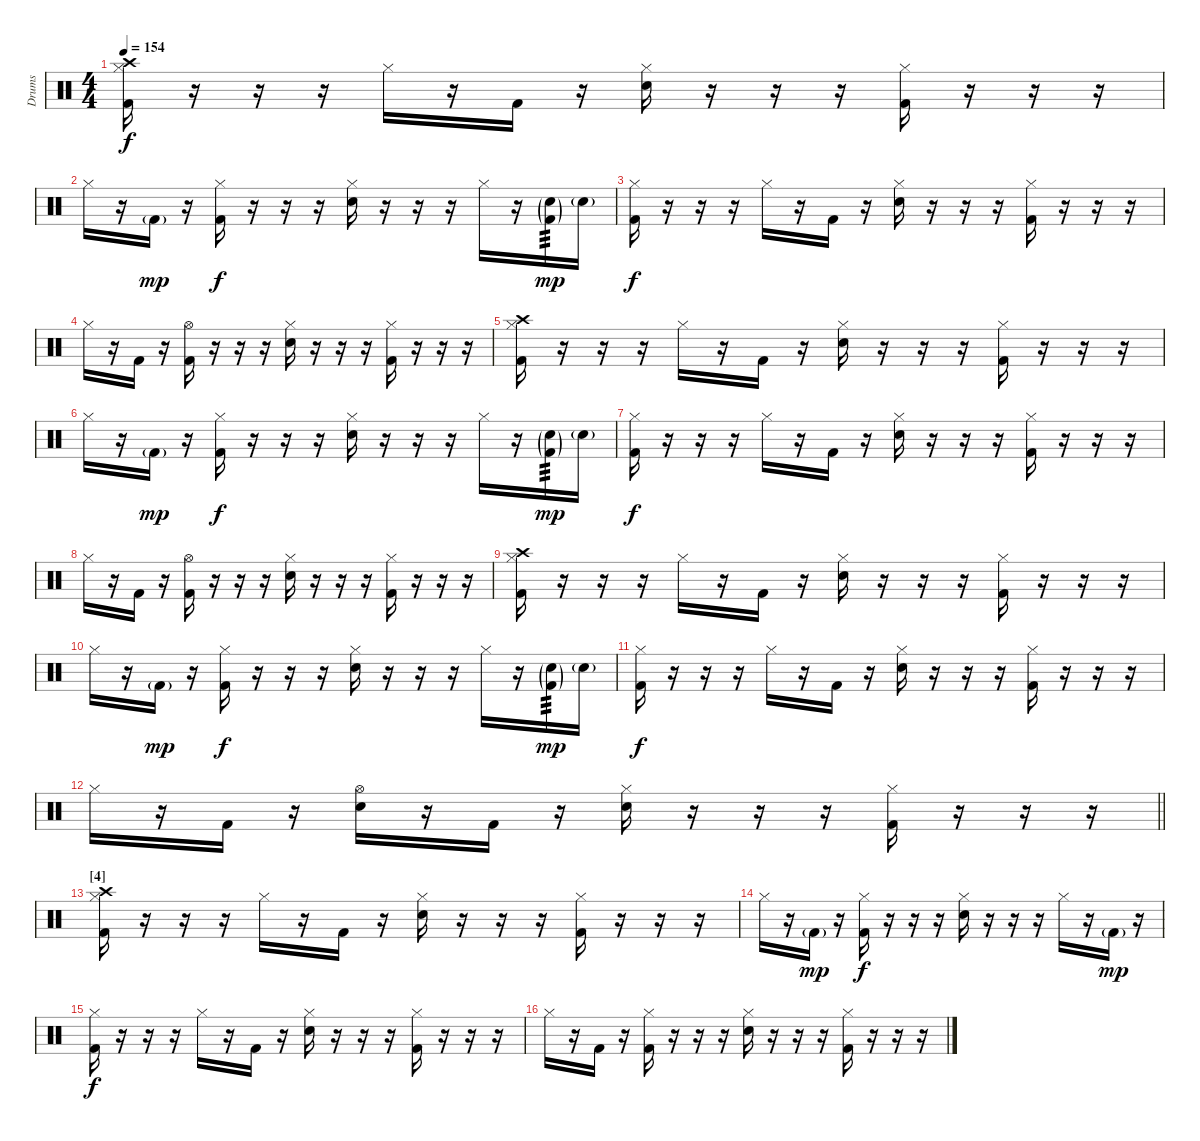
\track ("Drums" "Drums") {instrument percussion}
\staff {score}
\articulation defaults
\ts (4 4)
\tempo 154
\clef neutral
\ks c
("Crash high (hit)" "Hi-Hat (closed)" "Kick (hit) 2").16{dy f} r.16 r.16 r.16 "Hi-Hat (closed)".16 r.16 "Kick (hit) 2".16 r.16 ("Hi-Hat (closed)" "Electric Snare (hit)").16 r.16 r.16 r.16 ("Hi-Hat (closed)" "Kick (hit) 2").16 r.16 r.16 r.16 |
"Hi-Hat (closed)".16 r.16 "Kick (hit) 2"{g}.16{dy mp} r.16 ("Hi-Hat (closed)" "Kick (hit) 2").16{dy f} r.16 r.16 r.16 ("Hi-Hat (closed)" "Electric Snare (hit)").16 r.16 r.16 r.16 "Hi-Hat (closed)".16 r.16 ("Electric Snare (hit)"{g} "Kick (hit) 2"{g}).16{tp 3 dy mp} "Electric Snare (hit)"{g}.16 |
("Hi-Hat (closed)" "Kick (hit) 2").16{dy f} r.16 r.16 r.16 "Hi-Hat (closed)".16 r.16 "Kick (hit) 2".16 r.16 ("Hi-Hat (closed)" "Electric Snare (hit)").16 r.16 r.16 r.16 ("Hi-Hat (closed)" "Kick (hit) 2").16 r.16 r.16 r.16 |
"Hi-Hat (closed)".16 r.16 "Kick (hit) 2".16 r.16 ("Hi-Hat (open)" "Kick (hit) 2").16 r.16 r.16 r.16 ("Hi-Hat (closed)" "Electric Snare (hit)").16 r.16 r.16 r.16 ("Hi-Hat (closed)" "Kick (hit) 2").16 r.16 r.16 r.16 |
("Crash high (hit)" "Hi-Hat (closed)" "Kick (hit) 2").16 r.16 r.16 r.16 "Hi-Hat (closed)".16 r.16 "Kick (hit) 2".16 r.16 ("Hi-Hat (closed)" "Electric Snare (hit)").16 r.16 r.16 r.16 ("Hi-Hat (closed)" "Kick (hit) 2").16 r.16 r.16 r.16 |
"Hi-Hat (closed)".16 r.16 "Kick (hit) 2"{g}.16{dy mp} r.16 ("Hi-Hat (closed)" "Kick (hit) 2").16{dy f} r.16 r.16 r.16 ("Hi-Hat (closed)" "Electric Snare (hit)").16 r.16 r.16 r.16 "Hi-Hat (closed)".16 r.16 ("Electric Snare (hit)"{g} "Kick (hit) 2"{g}).16{tp 3 dy mp} "Electric Snare (hit)"{g}.16 |
("Hi-Hat (closed)" "Kick (hit) 2").16{dy f} r.16 r.16 r.16 "Hi-Hat (closed)".16 r.16 "Kick (hit) 2".16 r.16 ("Hi-Hat (closed)" "Electric Snare (hit)").16 r.16 r.16 r.16 ("Hi-Hat (closed)" "Kick (hit) 2").16 r.16 r.16 r.16 |
"Hi-Hat (closed)".16 r.16 "Kick (hit) 2".16 r.16 ("Hi-Hat (open)" "Kick (hit) 2").16 r.16 r.16 r.16 ("Hi-Hat (closed)" "Electric Snare (hit)").16 r.16 r.16 r.16 ("Hi-Hat (closed)" "Kick (hit) 2").16 r.16 r.16 r.16 |
("Crash high (hit)" "Hi-Hat (closed)" "Kick (hit) 2").16 r.16 r.16 r.16 "Hi-Hat (closed)".16 r.16 "Kick (hit) 2".16 r.16 ("Hi-Hat (closed)" "Electric Snare (hit)").16 r.16 r.16 r.16 ("Hi-Hat (closed)" "Kick (hit) 2").16 r.16 r.16 r.16 |
"Hi-Hat (closed)".16 r.16 "Kick (hit) 2"{g}.16{dy mp} r.16 ("Hi-Hat (closed)" "Kick (hit) 2").16{dy f} r.16 r.16 r.16 ("Hi-Hat (closed)" "Electric Snare (hit)").16 r.16 r.16 r.16 "Hi-Hat (closed)".16 r.16 ("Electric Snare (hit)"{g} "Kick (hit) 2"{g}).16{tp 3 dy mp} "Electric Snare (hit)"{g}.16 |
("Hi-Hat (closed)" "Kick (hit) 2").16{dy f} r.16 r.16 r.16 "Hi-Hat (closed)".16 r.16 "Kick (hit) 2".16 r.16 ("Hi-Hat (closed)" "Electric Snare (hit)").16 r.16 r.16 r.16 ("Hi-Hat (closed)" "Kick (hit) 2").16 r.16 r.16 r.16 |
\barLineRight lightlight "Hi-Hat (closed)".16
r.16 "Kick (hit) 2".16 r.16 ("Hi-Hat (open)" "Electric Snare (hit)").16 r.16 "Kick (hit) 2".16 r.16 ("Hi-Hat (closed)" "Electric Snare (hit)").16 r.16 r.16 r.16 ("Hi-Hat (closed)" "Kick (hit) 2").16 r.16 r.16 r.16 |
\section ("" "[4]")
("Crash high (hit)" "Hi-Hat (closed)" "Kick (hit) 2").16 r.16 r.16 r.16 "Hi-Hat (closed)".16 r.16 "Kick (hit) 2".16 r.16 ("Hi-Hat (closed)" "Electric Snare (hit)").16 r.16 r.16 r.16 ("Hi-Hat (closed)" "Kick (hit) 2").16 r.16 r.16 r.16 |
"Hi-Hat (closed)".16 r.16 "Kick (hit) 2"{g}.16{dy mp} r.16 ("Hi-Hat (closed)" "Kick (hit) 2").16{dy f} r.16 r.16 r.16 ("Hi-Hat (closed)" "Electric Snare (hit)").16 r.16 r.16 r.16 "Hi-Hat (closed)".16 r.16 "Kick (hit) 2"{g}.16{dy mp} r.16 |
("Hi-Hat (closed)" "Kick (hit) 2").16{dy f} r.16 r.16 r.16 "Hi-Hat (closed)".16 r.16 "Kick (hit) 2".16 r.16 ("Hi-Hat (closed)" "Electric Snare (hit)").16 r.16 r.16 r.16 ("Hi-Hat (closed)" "Kick (hit) 2").16 r.16 r.16 r.16 |
"Hi-Hat (closed)".16 r.16 "Kick (hit) 2".16 r.16 ("Hi-Hat (closed)" "Kick (hit) 2").16 r.16 r.16 r.16 ("Hi-Hat (closed)" "Electric Snare (hit)").16 r.16 r.16 r.16 ("Hi-Hat (closed)" "Kick (hit) 2").16 r.16 r.16 r.16
